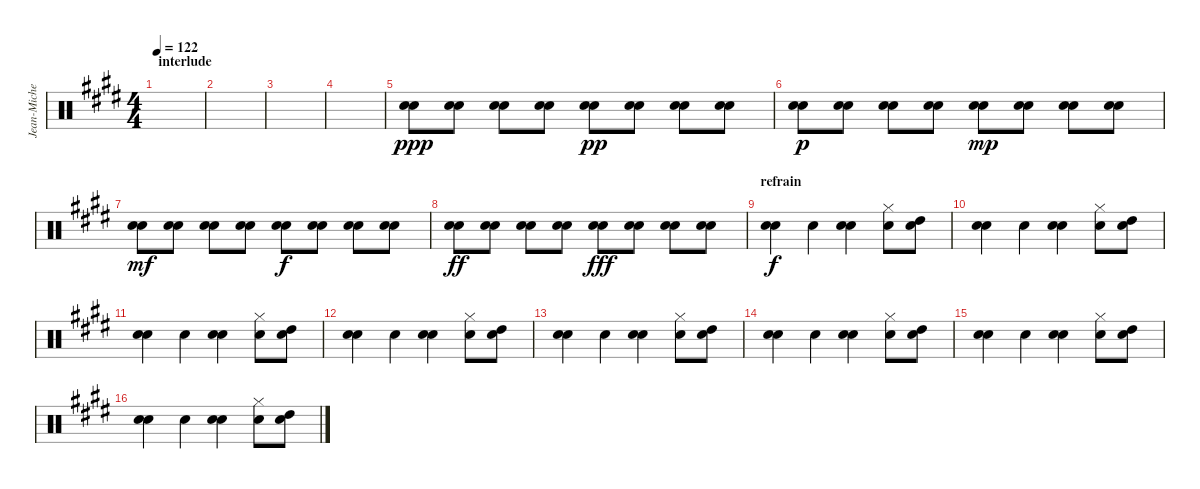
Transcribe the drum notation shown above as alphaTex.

\track ("Jean-Michel Truong (Batterie)" "Jean-Miche") {instrument percussion}
\staff {score}
\articulation defaults
\ts (4 4)
\section ("" "interlude")
\tempo 122
\clef neutral
\ks e
|
|
|
|
("Snare (hit) 2" "Electric Snare (hit)").8{dy ppp} ("Snare (hit) 2" "Electric Snare (hit)").8 ("Snare (hit) 2" "Electric Snare (hit)").8 ("Snare (hit) 2" "Electric Snare (hit)").8 ("Snare (hit) 2" "Electric Snare (hit)").8{dy pp} ("Snare (hit) 2" "Electric Snare (hit)").8 ("Snare (hit) 2" "Electric Snare (hit)").8 ("Snare (hit) 2" "Electric Snare (hit)").8 |
("Snare (hit) 2" "Electric Snare (hit)").8{dy p} ("Snare (hit) 2" "Electric Snare (hit)").8 ("Snare (hit) 2" "Electric Snare (hit)").8 ("Snare (hit) 2" "Electric Snare (hit)").8 ("Snare (hit) 2" "Electric Snare (hit)").8{dy mp} ("Snare (hit) 2" "Electric Snare (hit)").8 ("Snare (hit) 2" "Electric Snare (hit)").8 ("Snare (hit) 2" "Electric Snare (hit)").8 |
("Snare (hit) 2" "Electric Snare (hit)").8{dy mf} ("Snare (hit) 2" "Electric Snare (hit)").8 ("Snare (hit) 2" "Electric Snare (hit)").8 ("Snare (hit) 2" "Electric Snare (hit)").8 ("Snare (hit) 2" "Electric Snare (hit)").8{dy f} ("Snare (hit) 2" "Electric Snare (hit)").8 ("Snare (hit) 2" "Electric Snare (hit)").8 ("Snare (hit) 2" "Electric Snare (hit)").8 |
("Snare (hit) 2" "Electric Snare (hit)").8{dy ff} ("Snare (hit) 2" "Electric Snare (hit)").8 ("Snare (hit) 2" "Electric Snare (hit)").8 ("Snare (hit) 2" "Electric Snare (hit)").8 ("Snare (hit) 2" "Electric Snare (hit)").8{dy fff} ("Snare (hit) 2" "Electric Snare (hit)").8 ("Snare (hit) 2" "Electric Snare (hit)").8 ("Snare (hit) 2" "Electric Snare (hit)").8 |
\section ("" "refrain")
("Snare (hit) 2" "Electric Snare (hit)").4{dy f} "Electric Snare (hit)".4 ("Snare (hit) 2" "Electric Snare (hit)").4 ("Electric Snare (hit)" "Hi-Hat (closed)").8 ("Electric Snare (hit)" "High Tom (hit)").8 |
("Snare (hit) 2" "Electric Snare (hit)").4 "Electric Snare (hit)".4 ("Snare (hit) 2" "Electric Snare (hit)").4 ("Electric Snare (hit)" "Hi-Hat (closed)").8 ("Electric Snare (hit)" "High Tom (hit)").8 |
("Snare (hit) 2" "Electric Snare (hit)").4 "Electric Snare (hit)".4 ("Snare (hit) 2" "Electric Snare (hit)").4 ("Electric Snare (hit)" "Hi-Hat (closed)").8 ("Electric Snare (hit)" "High Tom (hit)").8 |
("Snare (hit) 2" "Electric Snare (hit)").4 "Electric Snare (hit)".4 ("Snare (hit) 2" "Electric Snare (hit)").4 ("Electric Snare (hit)" "Hi-Hat (closed)").8 ("Electric Snare (hit)" "High Tom (hit)").8 |
("Snare (hit) 2" "Electric Snare (hit)").4 "Electric Snare (hit)".4 ("Snare (hit) 2" "Electric Snare (hit)").4 ("Electric Snare (hit)" "Hi-Hat (closed)").8 ("Electric Snare (hit)" "High Tom (hit)").8 |
("Snare (hit) 2" "Electric Snare (hit)").4 "Electric Snare (hit)".4 ("Snare (hit) 2" "Electric Snare (hit)").4 ("Electric Snare (hit)" "Hi-Hat (closed)").8 ("Electric Snare (hit)" "High Tom (hit)").8 |
("Snare (hit) 2" "Electric Snare (hit)").4 "Electric Snare (hit)".4 ("Snare (hit) 2" "Electric Snare (hit)").4 ("Electric Snare (hit)" "Hi-Hat (closed)").8 ("Electric Snare (hit)" "High Tom (hit)").8 |
("Snare (hit) 2" "Electric Snare (hit)").4 "Electric Snare (hit)".4 ("Snare (hit) 2" "Electric Snare (hit)").4 ("Electric Snare (hit)" "Hi-Hat (closed)").8 ("Electric Snare (hit)" "High Tom (hit)").8
